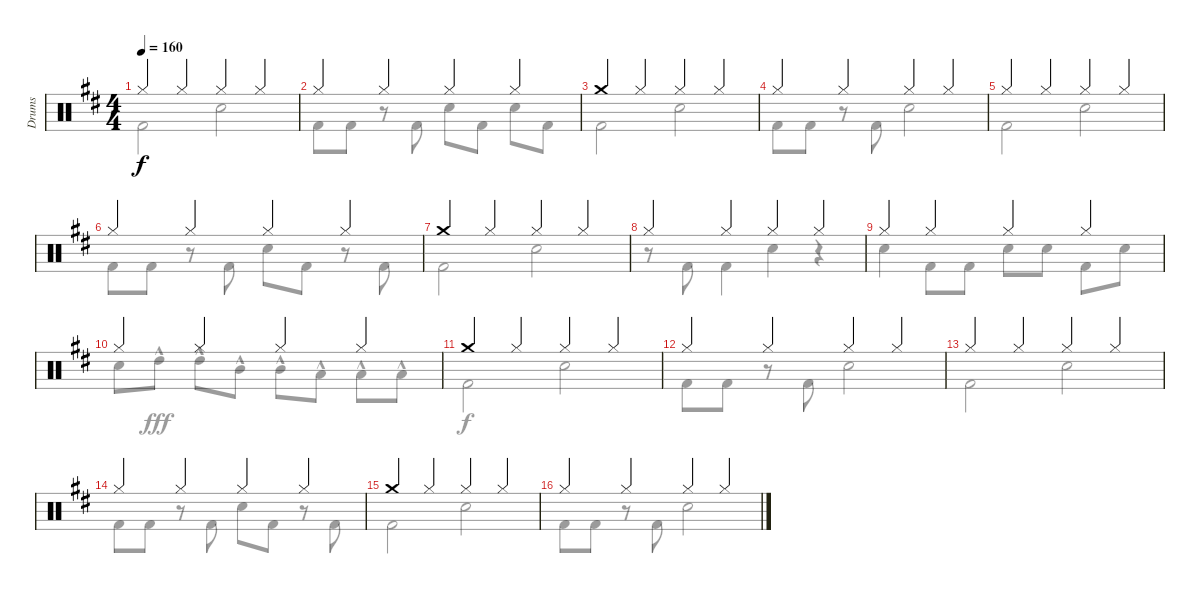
\track ("Drums" "Drums") {instrument percussion}
\staff {score}
\articulation defaults
\voice
\ts (4 4)
\tempo 160
\clef neutral
\ks d "Hi-Hat (closed)".4{dy f} "Hi-Hat (closed)".4 "Hi-Hat (closed)".4 "Hi-Hat (closed)".4
|
"Hi-Hat (closed)".4 "Hi-Hat (closed)".4 "Hi-Hat (closed)".4 "Hi-Hat (closed)".4 |
"Crash medium (hit)".4 "Hi-Hat (closed)".4 "Hi-Hat (closed)".4 "Hi-Hat (closed)".4 |
"Hi-Hat (closed)".4 "Hi-Hat (closed)".4 "Hi-Hat (closed)".4 "Hi-Hat (closed)".4 |
"Hi-Hat (closed)".4 "Hi-Hat (closed)".4 "Hi-Hat (closed)".4 "Hi-Hat (closed)".4 |
"Hi-Hat (closed)".4 "Hi-Hat (closed)".4 "Hi-Hat (closed)".4 "Hi-Hat (closed)".4 |
"Crash medium (hit)".4 "Hi-Hat (closed)".4 "Hi-Hat (closed)".4 "Hi-Hat (closed)".4 |
"Hi-Hat (closed)".4 "Hi-Hat (closed)".4 "Hi-Hat (closed)".4 "Hi-Hat (closed)".4 |
"Hi-Hat (closed)".4 "Hi-Hat (closed)".4 "Hi-Hat (closed)".4 "Hi-Hat (closed)".4 |
"Hi-Hat (closed)".4 "Hi-Hat (closed)".4 "Hi-Hat (closed)".4 "Hi-Hat (closed)".4 |
"Crash medium (hit)".4 "Hi-Hat (closed)".4 "Hi-Hat (closed)".4 "Hi-Hat (closed)".4 |
"Hi-Hat (closed)".4 "Hi-Hat (closed)".4 "Hi-Hat (closed)".4 "Hi-Hat (closed)".4 |
"Hi-Hat (closed)".4 "Hi-Hat (closed)".4 "Hi-Hat (closed)".4 "Hi-Hat (closed)".4 |
"Hi-Hat (closed)".4 "Hi-Hat (closed)".4 "Hi-Hat (closed)".4 "Hi-Hat (closed)".4 |
"Crash medium (hit)".4 "Hi-Hat (closed)".4 "Hi-Hat (closed)".4 "Hi-Hat (closed)".4 |
"Hi-Hat (closed)".4 "Hi-Hat (closed)".4 "Hi-Hat (closed)".4 "Hi-Hat (closed)".4
\voice
\clef neutral
\ottava regular
\simile none
\ks d "Kick (hit) 2".2{dy f} "Snare (hit) 2".2
|
"Kick (hit) 2".8 "Kick (hit) 2".8 r.8 "Kick (hit) 2".8 "Snare (hit) 2".8 "Kick (hit) 2".8 "Snare (hit) 2".8 "Kick (hit) 2".8 |
"Kick (hit) 2".2 "Snare (hit) 2".2 |
"Kick (hit) 2".8 "Kick (hit) 2".8 r.8 "Kick (hit) 2".8 "Snare (hit) 2".2 |
"Kick (hit) 2".2 "Snare (hit) 2".2 |
"Kick (hit) 2".8 "Kick (hit) 2".8 r.8 "Kick (hit) 2".8 "Snare (hit) 2".8 "Kick (hit) 2".8 r.8 "Kick (hit) 2".8 |
"Kick (hit) 2".2 "Snare (hit) 2".2 |
r.8 "Kick (hit) 2".8 "Kick (hit) 2".4 "Snare (hit) 2".4 r.4 |
"Snare (hit) 2".4 "Kick (hit) 2".8 "Kick (hit) 2".8 "Snare (hit) 2".8 "Snare (hit) 2".8 "Kick (hit) 2".8 "Snare (hit) 2".8 |
"Snare (hit) 2".8 "High Tom (hit)"{hac}.8{dy fff} "High Tom (hit)"{hac}.8 "Mid Tom (hit)"{hac}.8 "Mid Tom (hit)"{hac}.8 "Low Tom (hit)"{hac}.8 "Low Tom (hit)"{hac}.8 "Low Tom (hit)"{hac}.8 |
"Kick (hit) 2".2{dy f} "Snare (hit) 2".2 |
"Kick (hit) 2".8 "Kick (hit) 2".8 r.8 "Kick (hit) 2".8 "Snare (hit) 2".2 |
"Kick (hit) 2".2 "Snare (hit) 2".2 |
"Kick (hit) 2".8 "Kick (hit) 2".8 r.8 "Kick (hit) 2".8 "Snare (hit) 2".8 "Kick (hit) 2".8 r.8 "Kick (hit) 2".8 |
"Kick (hit) 2".2 "Snare (hit) 2".2 |
"Kick (hit) 2".8 "Kick (hit) 2".8 r.8 "Kick (hit) 2".8 "Snare (hit) 2".2
